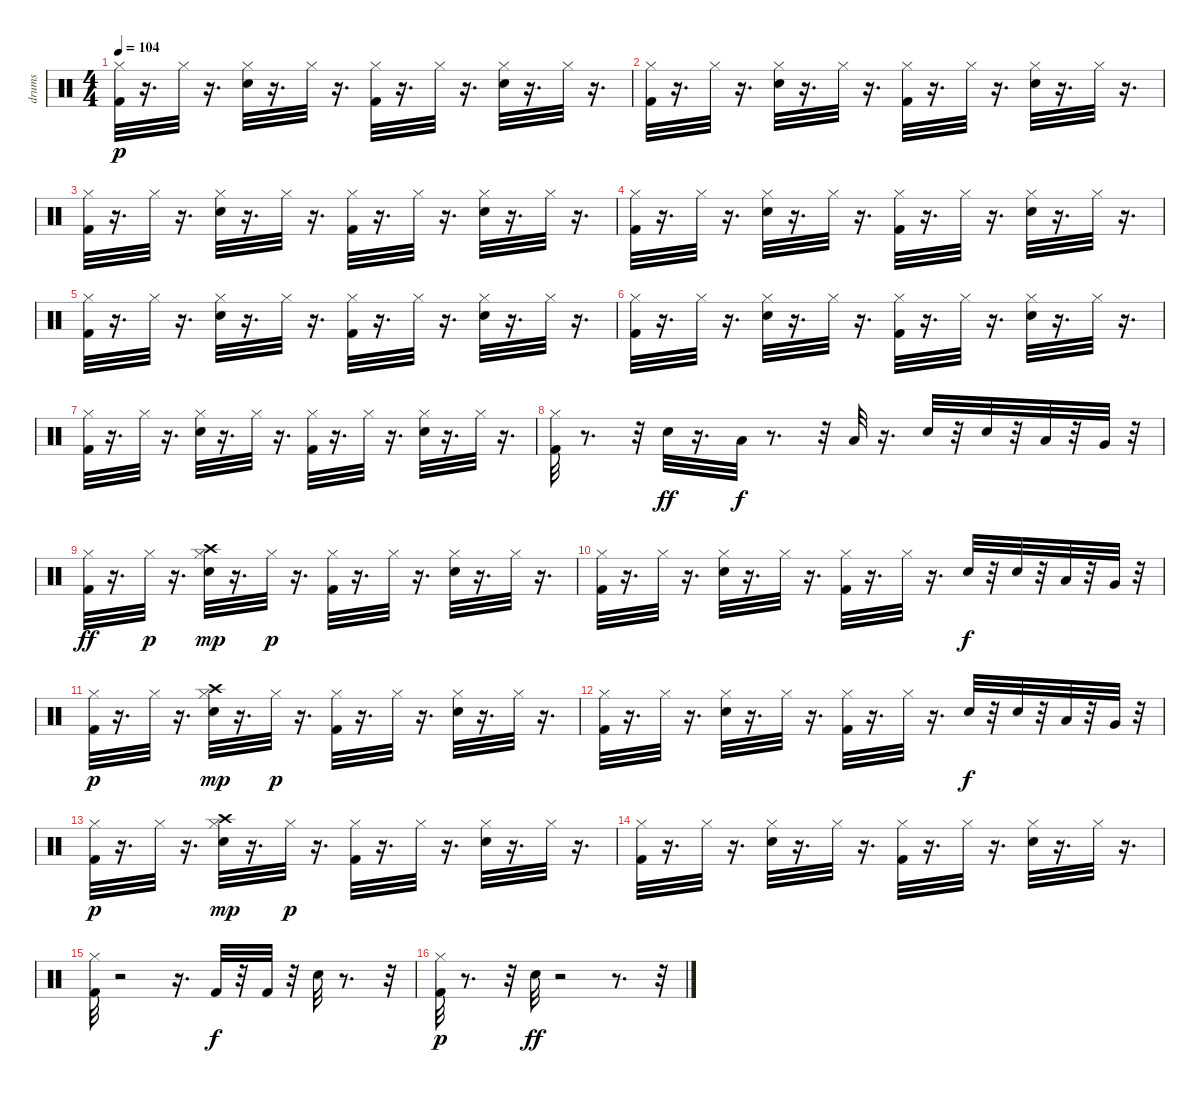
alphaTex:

\track ("drums" "drums") {instrument percussion}
\staff {score}
\articulation defaults
\ts (4 4)
\tempo 104
\clef neutral
\ks c
("Kick (hit) 2" "Hi-Hat (closed)").32{dy p} r.16{d} "Hi-Hat (closed)".32 r.16{d} ("Snare (hit) 2" "Hi-Hat (closed)").32 r.16{d} "Hi-Hat (closed)".32 r.16{d} ("Kick (hit) 2" "Hi-Hat (closed)").32 r.16{d} "Hi-Hat (closed)".32 r.16{d} ("Snare (hit) 2" "Hi-Hat (closed)").32 r.16{d} "Hi-Hat (closed)".32 r.16{d} |
("Kick (hit) 2" "Hi-Hat (closed)").32 r.16{d} "Hi-Hat (closed)".32 r.16{d} ("Snare (hit) 2" "Hi-Hat (closed)").32 r.16{d} "Hi-Hat (closed)".32 r.16{d} ("Kick (hit) 2" "Hi-Hat (closed)").32 r.16{d} "Hi-Hat (closed)".32 r.16{d} ("Snare (hit) 2" "Hi-Hat (closed)").32 r.16{d} "Hi-Hat (closed)".32 r.16{d} |
("Kick (hit) 2" "Hi-Hat (closed)").32 r.16{d} "Hi-Hat (closed)".32 r.16{d} ("Snare (hit) 2" "Hi-Hat (closed)").32 r.16{d} "Hi-Hat (closed)".32 r.16{d} ("Kick (hit) 2" "Hi-Hat (closed)").32 r.16{d} "Hi-Hat (closed)".32 r.16{d} ("Snare (hit) 2" "Hi-Hat (closed)").32 r.16{d} "Hi-Hat (closed)".32 r.16{d} |
("Kick (hit) 2" "Hi-Hat (closed)").32 r.16{d} "Hi-Hat (closed)".32 r.16{d} ("Snare (hit) 2" "Hi-Hat (closed)").32 r.16{d} "Hi-Hat (closed)".32 r.16{d} ("Kick (hit) 2" "Hi-Hat (closed)").32 r.16{d} "Hi-Hat (closed)".32 r.16{d} ("Snare (hit) 2" "Hi-Hat (closed)").32 r.16{d} "Hi-Hat (closed)".32 r.16{d} |
("Kick (hit) 2" "Hi-Hat (closed)").32 r.16{d} "Hi-Hat (closed)".32 r.16{d} ("Snare (hit) 2" "Hi-Hat (closed)").32 r.16{d} "Hi-Hat (closed)".32 r.16{d} ("Kick (hit) 2" "Hi-Hat (closed)").32 r.16{d} "Hi-Hat (closed)".32 r.16{d} ("Snare (hit) 2" "Hi-Hat (closed)").32 r.16{d} "Hi-Hat (closed)".32 r.16{d} |
("Kick (hit) 2" "Hi-Hat (closed)").32 r.16{d} "Hi-Hat (closed)".32 r.16{d} ("Snare (hit) 2" "Hi-Hat (closed)").32 r.16{d} "Hi-Hat (closed)".32 r.16{d} ("Kick (hit) 2" "Hi-Hat (closed)").32 r.16{d} "Hi-Hat (closed)".32 r.16{d} ("Snare (hit) 2" "Hi-Hat (closed)").32 r.16{d} "Hi-Hat (closed)".32 r.16{d} |
("Kick (hit) 2" "Hi-Hat (closed)").32 r.16{d} "Hi-Hat (closed)".32 r.16{d} ("Snare (hit) 2" "Hi-Hat (closed)").32 r.16{d} "Hi-Hat (closed)".32 r.16{d} ("Kick (hit) 2" "Hi-Hat (closed)").32 r.16{d} "Hi-Hat (closed)".32 r.16{d} ("Snare (hit) 2" "Hi-Hat (closed)").32 r.16{d} "Hi-Hat (closed)".32 r.16{d} |
("Kick (hit) 2" "Hi-Hat (closed)").32 r.8{d} r.32 "Snare (hit) 2".32{dy ff} r.16{d} "Low Tom (hit)".32{dy f} r.8{d} r.32 "Low Tom (hit)".32 r.16{d} "Snare (hit) 2".32 r.32 "Snare (hit) 2".32 r.32 "Low Tom (hit)".32 r.32 "Very Low Tom (hit)".32 r.32 |
("Hi-Hat (closed)" "Kick (hit) 2").32{dy ff} r.16{d} "Hi-Hat (closed)".32{dy p} r.16{d} ("Snare (hit) 2" "Hi-Hat (closed)" "Crash high (hit)").32{dy mp} r.16{d} "Hi-Hat (closed)".32{dy p} r.16{d} ("Kick (hit) 2" "Hi-Hat (closed)").32 r.16{d} "Hi-Hat (closed)".32 r.16{d} ("Snare (hit) 2" "Hi-Hat (closed)").32 r.16{d} "Hi-Hat (closed)".32 r.16{d} |
("Kick (hit) 2" "Hi-Hat (closed)").32 r.16{d} "Hi-Hat (closed)".32 r.16{d} ("Snare (hit) 2" "Hi-Hat (closed)").32 r.16{d} "Hi-Hat (closed)".32 r.16{d} ("Kick (hit) 2" "Hi-Hat (closed)").32 r.16{d} "Hi-Hat (closed)".32 r.16{d} "Snare (hit) 2".32{dy f} r.32 "Snare (hit) 2".32 r.32 "Low Tom (hit)".32 r.32 "Very Low Tom (hit)".32 r.32 |
("Kick (hit) 2" "Hi-Hat (closed)").32{dy p} r.16{d} "Hi-Hat (closed)".32 r.16{d} ("Snare (hit) 2" "Hi-Hat (closed)" "Crash high (hit)").32{dy mp} r.16{d} "Hi-Hat (closed)".32{dy p} r.16{d} ("Kick (hit) 2" "Hi-Hat (closed)").32 r.16{d} "Hi-Hat (closed)".32 r.16{d} ("Snare (hit) 2" "Hi-Hat (closed)").32 r.16{d} "Hi-Hat (closed)".32 r.16{d} |
("Kick (hit) 2" "Hi-Hat (closed)").32 r.16{d} "Hi-Hat (closed)".32 r.16{d} ("Snare (hit) 2" "Hi-Hat (closed)").32 r.16{d} "Hi-Hat (closed)".32 r.16{d} ("Kick (hit) 2" "Hi-Hat (closed)").32 r.16{d} "Hi-Hat (closed)".32 r.16{d} "Snare (hit) 2".32{dy f} r.32 "Snare (hit) 2".32 r.32 "Low Tom (hit)".32 r.32 "Very Low Tom (hit)".32 r.32 |
("Kick (hit) 2" "Hi-Hat (closed)").32{dy p} r.16{d} "Hi-Hat (closed)".32 r.16{d} ("Snare (hit) 2" "Hi-Hat (closed)" "Crash high (hit)").32{dy mp} r.16{d} "Hi-Hat (closed)".32{dy p} r.16{d} ("Kick (hit) 2" "Hi-Hat (closed)").32 r.16{d} "Hi-Hat (closed)".32 r.16{d} ("Snare (hit) 2" "Hi-Hat (closed)").32 r.16{d} "Hi-Hat (closed)".32 r.16{d} |
("Kick (hit) 2" "Hi-Hat (closed)").32 r.16{d} "Hi-Hat (closed)".32 r.16{d} ("Snare (hit) 2" "Hi-Hat (closed)").32 r.16{d} "Hi-Hat (closed)".32 r.16{d} ("Kick (hit) 2" "Hi-Hat (closed)").32 r.16{d} "Hi-Hat (closed)".32 r.16{d} ("Snare (hit) 2" "Hi-Hat (closed)").32 r.16{d} "Hi-Hat (closed)".32 r.16{d} |
("Kick (hit) 2" "Hi-Hat (closed)").32 r.2 r.16{d} "Kick (hit) 2".32{dy f} r.32 "Kick (hit) 2".32 r.32 "Snare (hit) 2".32 r.8{d} r.32 |
("Kick (hit) 2" "Hi-Hat (closed)").32{dy p} r.8{d} r.32 "Snare (hit) 2".32{dy ff} r.2 r.8{d} r.32
